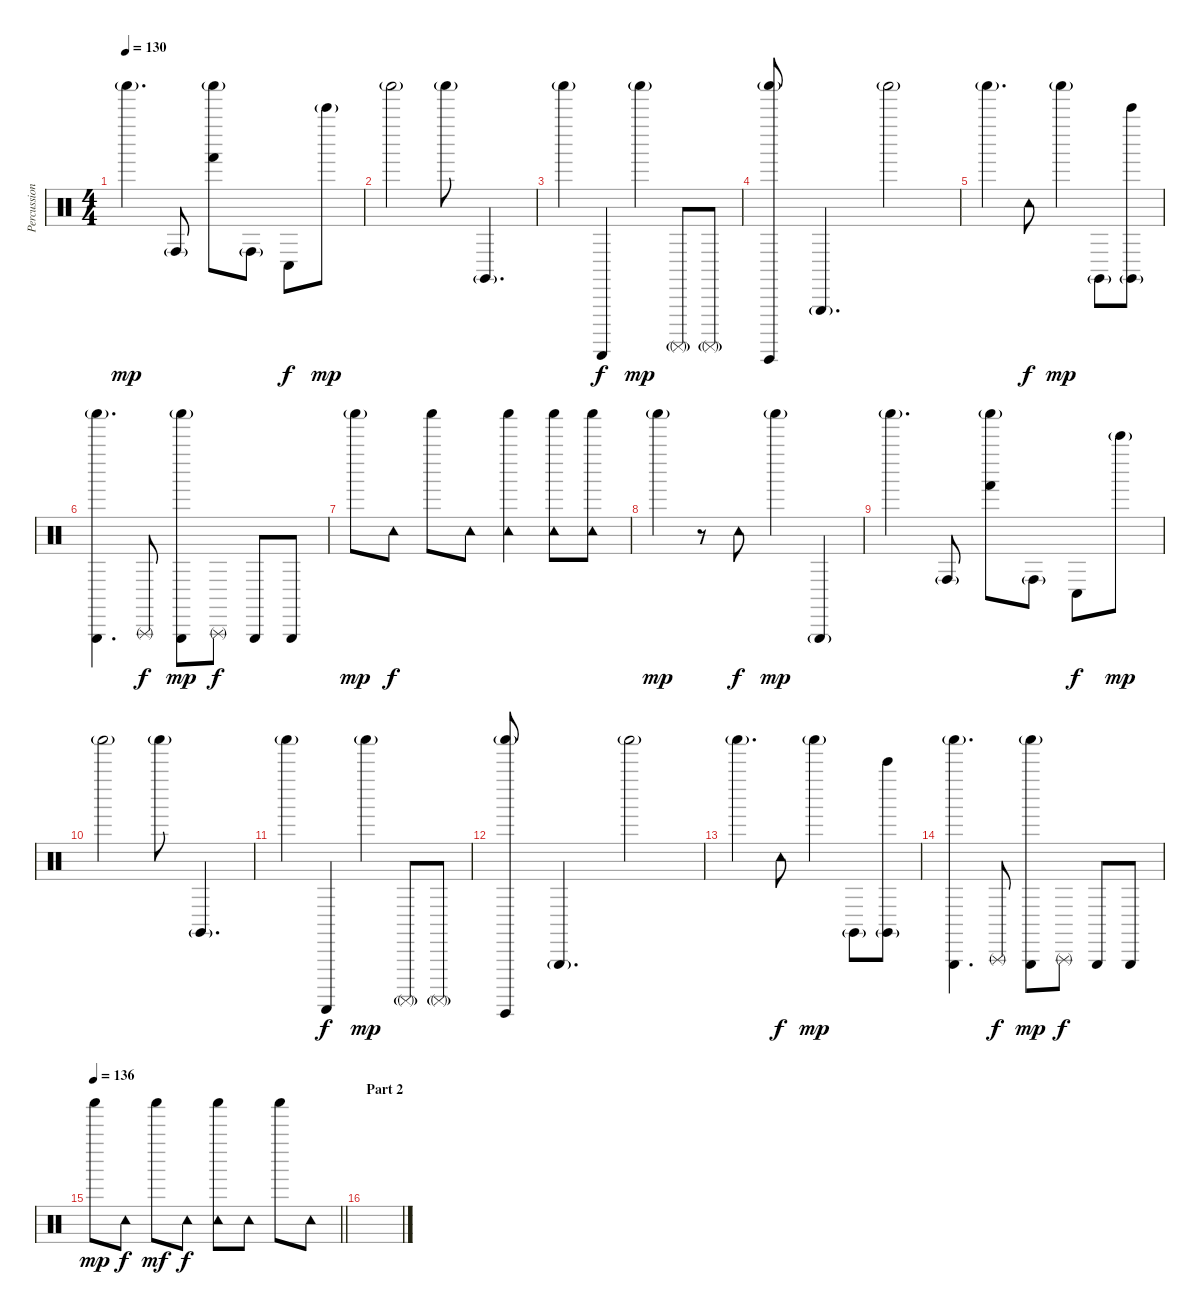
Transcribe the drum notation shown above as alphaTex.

\track ("Percussion / FX" "Percussion") {instrument percussion}
\staff {score}
\articulation defaults
\ts (4 4)
\tempo 130
\clef neutral
\ks c "Shaker (hit)"{g}.4{d dy mp} "Conga high (hit)"{g}.8
("Shaker (hit)"{g} "Hand (hit)").8 "Conga high (hit)"{g}.8 "Conga low (hit)".8{dy f} "Bell Tree (hit)"{g}.8{dy mp} |
"Shaker (hit)"{g}.2 "Shaker (hit)"{g}.8 "Claves (hit)"{g}.4{d} |
"Shaker (hit)"{g}.4 "Guiro (scrap-return)".4{dy f} "Shaker (hit)"{g}.4{dy mp} "Surdo (mute)"{g}.8 "Surdo (mute)"{g}.8 |
("Shaker (hit)"{g} "Guiro (hit)").8 "Triangle (hit)"{g}.4{d} "Shaker (hit)"{g}.2 |
"Shaker (hit)"{g}.4{d} "Tambourine (hit)".8{dy f} "Shaker (hit)"{g}.4{dy mp} "Claves (hit)"{g}.8 ("Claves (hit)"{g} "Bell Tree (hit)").8 |
("Shaker (hit)"{g} "Triangle (hit)").4{d} "Triangle (rnute)".8{dy f} ("Shaker (hit)"{g} "Triangle (hit)").8{dy mp} "Triangle (rnute)".8{dy f} "Triangle (hit)".8 "Triangle (hit)".8 |
"Shaker (hit)"{g}.8{dy mp} "Tambourine (hit)".8{dy f} "Shaker (hit)".8 "Tambourine (hit)".8 ("Shaker (hit)" "Tambourine (hit)").4 ("Shaker (hit)" "Tambourine (hit)").8 ("Shaker (hit)" "Tambourine (hit)").8 |
"Shaker (hit)"{g}.4{dy mp} r.8 "Tambourine (hit)".8{dy f} "Shaker (hit)"{g}.4{dy mp} "Triangle (hit)"{g}.4 |
"Shaker (hit)"{g}.4{d} "Conga high (hit)"{g}.8 ("Shaker (hit)"{g} "Hand (hit)").8 "Conga high (hit)"{g}.8 "Conga low (hit)".8{dy f} "Bell Tree (hit)"{g}.8{dy mp} |
"Shaker (hit)"{g}.2 "Shaker (hit)"{g}.8 "Claves (hit)"{g}.4{d} |
"Shaker (hit)"{g}.4 "Guiro (scrap-return)".4{dy f} "Shaker (hit)"{g}.4{dy mp} "Surdo (mute)"{g}.8 "Surdo (mute)"{g}.8 |
("Shaker (hit)"{g} "Guiro (hit)").8 "Triangle (hit)"{g}.4{d} "Shaker (hit)"{g}.2 |
"Shaker (hit)"{g}.4{d} "Tambourine (hit)".8{dy f} "Shaker (hit)"{g}.4{dy mp} "Claves (hit)"{g}.8 ("Claves (hit)"{g} "Bell Tree (hit)").8 |
("Shaker (hit)"{g} "Triangle (hit)").4{d} "Triangle (rnute)".8{dy f} ("Shaker (hit)"{g} "Triangle (hit)").8{dy mp} "Triangle (rnute)".8{dy f} "Triangle (hit)".8 "Triangle (hit)".8 |
\tempo 136
\barLineRight lightlight "Shaker (hit)".8{dy mp} "Tambourine (hit)".8{dy f} "Shaker (hit)".8{dy mf} "Tambourine (hit)".8{dy f}
("Shaker (hit)" "Tambourine (hit)").8 "Tambourine (hit)".8 "Shaker (hit)".8 "Tambourine (hit)".8 |
\section ("" "Part 2")
